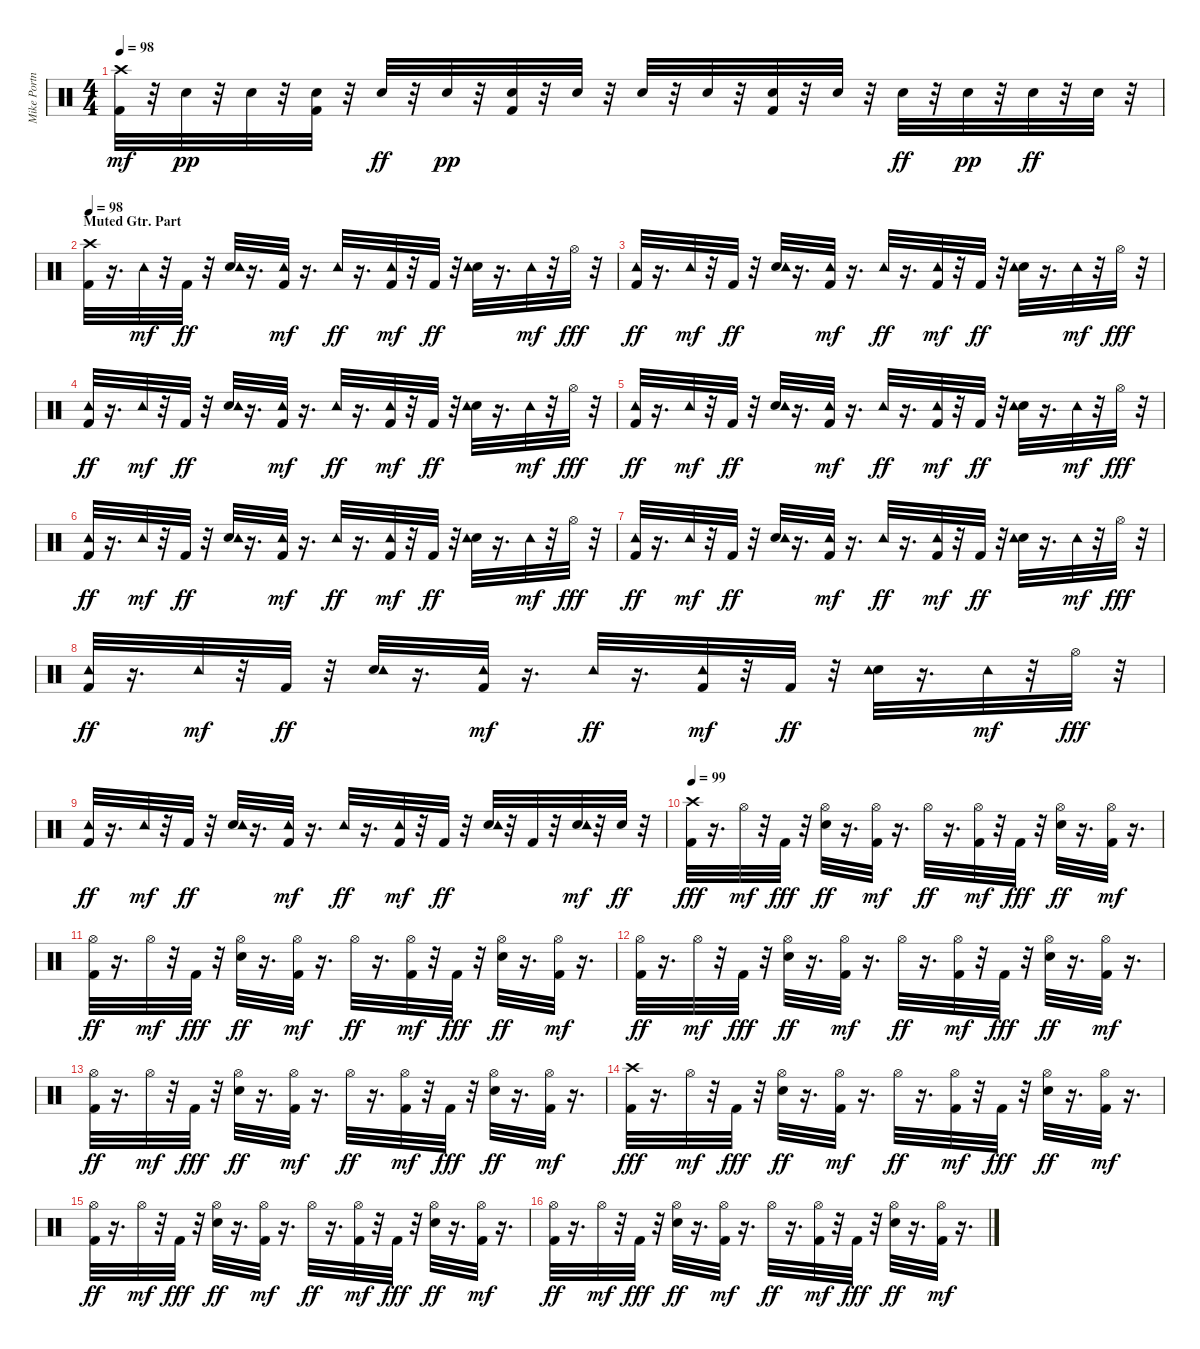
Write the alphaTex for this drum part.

\track ("Mike Portnoy" "Mike Portn") {instrument percussion}
\staff {score}
\articulation defaults
\ts (4 4)
\tempo 98
\clef neutral
\ks c
("Kick (hit) 2" "Crash high (hit)").32{dy mf} r.32 "Snare (hit) 2".32{dy pp} r.32 "Snare (hit) 2".32 r.32 ("Kick (hit) 2" "Snare (hit) 2").32 r.32 "Snare (hit) 2".32{dy ff} r.32 "Snare (hit) 2".32{dy pp} r.32 ("Kick (hit) 2" "Snare (hit) 2").32 r.32 "Snare (hit) 2".32 r.32 "Snare (hit) 2".32 r.32 "Snare (hit) 2".32 r.32 ("Kick (hit) 2" "Snare (hit) 2").32 r.32 "Snare (hit) 2".32 r.32 "Snare (hit) 2".32{dy ff} r.32 "Snare (hit) 2".32{dy pp} r.32 "Snare (hit) 2".32{dy ff} r.32 "Snare (hit) 2".32 r.32 |
\section ("" "Muted Gtr. Part")
\tempo 98
("Kick (hit) 2" "Crash high (hit)").32 r.16{d} "Tambourine (hit)".32{dy mf} r.32 "Kick (hit) 2".32{dy ff} r.32 ("Snare (hit) 2" "Tambourine (hit)").32 r.16{d} ("Kick (hit) 2" "Tambourine (hit)").32{dy mf} r.16{d} "Tambourine (hit)".32{dy ff} r.16{d} ("Kick (hit) 2" "Tambourine (hit)").32{dy mf} r.32 "Kick (hit) 2".32{dy ff} r.32 ("Snare (hit) 2" "Tambourine (hit)").32 r.16{d} "Tambourine (hit)".32{dy mf} r.32 "Hi-Hat (open)".32{dy fff} r.32 |
("Kick (hit) 2" "Tambourine (hit)").32{dy ff} r.16{d} "Tambourine (hit)".32{dy mf} r.32 "Kick (hit) 2".32{dy ff} r.32 ("Snare (hit) 2" "Tambourine (hit)").32 r.16{d} ("Kick (hit) 2" "Tambourine (hit)").32{dy mf} r.16{d} "Tambourine (hit)".32{dy ff} r.16{d} ("Kick (hit) 2" "Tambourine (hit)").32{dy mf} r.32 "Kick (hit) 2".32{dy ff} r.32 ("Snare (hit) 2" "Tambourine (hit)").32 r.16{d} "Tambourine (hit)".32{dy mf} r.32 "Hi-Hat (open)".32{dy fff} r.32 |
("Kick (hit) 2" "Tambourine (hit)").32{dy ff} r.16{d} "Tambourine (hit)".32{dy mf} r.32 "Kick (hit) 2".32{dy ff} r.32 ("Snare (hit) 2" "Tambourine (hit)").32 r.16{d} ("Kick (hit) 2" "Tambourine (hit)").32{dy mf} r.16{d} "Tambourine (hit)".32{dy ff} r.16{d} ("Kick (hit) 2" "Tambourine (hit)").32{dy mf} r.32 "Kick (hit) 2".32{dy ff} r.32 ("Snare (hit) 2" "Tambourine (hit)").32 r.16{d} "Tambourine (hit)".32{dy mf} r.32 "Hi-Hat (open)".32{dy fff} r.32 |
("Kick (hit) 2" "Tambourine (hit)").32{dy ff} r.16{d} "Tambourine (hit)".32{dy mf} r.32 "Kick (hit) 2".32{dy ff} r.32 ("Snare (hit) 2" "Tambourine (hit)").32 r.16{d} ("Kick (hit) 2" "Tambourine (hit)").32{dy mf} r.16{d} "Tambourine (hit)".32{dy ff} r.16{d} ("Kick (hit) 2" "Tambourine (hit)").32{dy mf} r.32 "Kick (hit) 2".32{dy ff} r.32 ("Snare (hit) 2" "Tambourine (hit)").32 r.16{d} "Tambourine (hit)".32{dy mf} r.32 "Hi-Hat (open)".32{dy fff} r.32 |
("Kick (hit) 2" "Tambourine (hit)").32{dy ff} r.16{d} "Tambourine (hit)".32{dy mf} r.32 "Kick (hit) 2".32{dy ff} r.32 ("Snare (hit) 2" "Tambourine (hit)").32 r.16{d} ("Kick (hit) 2" "Tambourine (hit)").32{dy mf} r.16{d} "Tambourine (hit)".32{dy ff} r.16{d} ("Kick (hit) 2" "Tambourine (hit)").32{dy mf} r.32 "Kick (hit) 2".32{dy ff} r.32 ("Snare (hit) 2" "Tambourine (hit)").32 r.16{d} "Tambourine (hit)".32{dy mf} r.32 "Hi-Hat (open)".32{dy fff} r.32 |
("Kick (hit) 2" "Tambourine (hit)").32{dy ff} r.16{d} "Tambourine (hit)".32{dy mf} r.32 "Kick (hit) 2".32{dy ff} r.32 ("Snare (hit) 2" "Tambourine (hit)").32 r.16{d} ("Kick (hit) 2" "Tambourine (hit)").32{dy mf} r.16{d} "Tambourine (hit)".32{dy ff} r.16{d} ("Kick (hit) 2" "Tambourine (hit)").32{dy mf} r.32 "Kick (hit) 2".32{dy ff} r.32 ("Snare (hit) 2" "Tambourine (hit)").32 r.16{d} "Tambourine (hit)".32{dy mf} r.32 "Hi-Hat (open)".32{dy fff} r.32 |
("Kick (hit) 2" "Tambourine (hit)").32{dy ff} r.16{d} "Tambourine (hit)".32{dy mf} r.32 "Kick (hit) 2".32{dy ff} r.32 ("Snare (hit) 2" "Tambourine (hit)").32 r.16{d} ("Kick (hit) 2" "Tambourine (hit)").32{dy mf} r.16{d} "Tambourine (hit)".32{dy ff} r.16{d} ("Kick (hit) 2" "Tambourine (hit)").32{dy mf} r.32 "Kick (hit) 2".32{dy ff} r.32 ("Snare (hit) 2" "Tambourine (hit)").32 r.16{d} "Tambourine (hit)".32{dy mf} r.32 "Hi-Hat (open)".32{dy fff} r.32 |
("Kick (hit) 2" "Tambourine (hit)").32{dy ff} r.16{d} "Tambourine (hit)".32{dy mf} r.32 "Kick (hit) 2".32{dy ff} r.32 ("Snare (hit) 2" "Tambourine (hit)").32 r.16{d} ("Kick (hit) 2" "Tambourine (hit)").32{dy mf} r.16{d} "Tambourine (hit)".32{dy ff} r.16{d} ("Kick (hit) 2" "Tambourine (hit)").32{dy mf} r.32 "Kick (hit) 2".32{dy ff} r.32 ("Snare (hit) 2" "Tambourine (hit)").32 r.32 "Kick (hit) 2".32 r.32 ("Snare (hit) 2" "Tambourine (hit)").32{dy mf} r.32 "Snare (hit) 2".32{dy ff} r.32 |
\tempo 99
("Kick (hit) 2" "Crash high (hit)").32{dy fff} r.16{d} "Hi-Hat (open)".32{dy mf} r.32 "Kick (hit) 2".32{dy fff} r.32 ("Snare (hit) 2" "Hi-Hat (open)").32{dy ff} r.16{d} ("Kick (hit) 2" "Hi-Hat (open)").32{dy mf} r.16{d} "Hi-Hat (open)".32{dy ff} r.16{d} ("Kick (hit) 2" "Hi-Hat (open)").32{dy mf} r.32 "Kick (hit) 2".32{dy fff} r.32 ("Snare (hit) 2" "Hi-Hat (open)").32{dy ff} r.16{d} ("Kick (hit) 2" "Hi-Hat (open)").32{dy mf} r.16{d} |
("Kick (hit) 2" "Hi-Hat (open)").32{dy ff} r.16{d} "Hi-Hat (open)".32{dy mf} r.32 "Kick (hit) 2".32{dy fff} r.32 ("Snare (hit) 2" "Hi-Hat (open)").32{dy ff} r.16{d} ("Kick (hit) 2" "Hi-Hat (open)").32{dy mf} r.16{d} "Hi-Hat (open)".32{dy ff} r.16{d} ("Kick (hit) 2" "Hi-Hat (open)").32{dy mf} r.32 "Kick (hit) 2".32{dy fff} r.32 ("Snare (hit) 2" "Hi-Hat (open)").32{dy ff} r.16{d} ("Kick (hit) 2" "Hi-Hat (open)").32{dy mf} r.16{d} |
("Kick (hit) 2" "Hi-Hat (open)").32{dy ff} r.16{d} "Hi-Hat (open)".32{dy mf} r.32 "Kick (hit) 2".32{dy fff} r.32 ("Snare (hit) 2" "Hi-Hat (open)").32{dy ff} r.16{d} ("Kick (hit) 2" "Hi-Hat (open)").32{dy mf} r.16{d} "Hi-Hat (open)".32{dy ff} r.16{d} ("Kick (hit) 2" "Hi-Hat (open)").32{dy mf} r.32 "Kick (hit) 2".32{dy fff} r.32 ("Snare (hit) 2" "Hi-Hat (open)").32{dy ff} r.16{d} ("Kick (hit) 2" "Hi-Hat (open)").32{dy mf} r.16{d} |
("Kick (hit) 2" "Hi-Hat (open)").32{dy ff} r.16{d} "Hi-Hat (open)".32{dy mf} r.32 "Kick (hit) 2".32{dy fff} r.32 ("Snare (hit) 2" "Hi-Hat (open)").32{dy ff} r.16{d} ("Kick (hit) 2" "Hi-Hat (open)").32{dy mf} r.16{d} "Hi-Hat (open)".32{dy ff} r.16{d} ("Kick (hit) 2" "Hi-Hat (open)").32{dy mf} r.32 "Kick (hit) 2".32{dy fff} r.32 ("Snare (hit) 2" "Hi-Hat (open)").32{dy ff} r.16{d} ("Kick (hit) 2" "Hi-Hat (open)").32{dy mf} r.16{d} |
("Kick (hit) 2" "Crash high (hit)").32{dy fff} r.16{d} "Hi-Hat (open)".32{dy mf} r.32 "Kick (hit) 2".32{dy fff} r.32 ("Snare (hit) 2" "Hi-Hat (open)").32{dy ff} r.16{d} ("Kick (hit) 2" "Hi-Hat (open)").32{dy mf} r.16{d} "Hi-Hat (open)".32{dy ff} r.16{d} ("Kick (hit) 2" "Hi-Hat (open)").32{dy mf} r.32 "Kick (hit) 2".32{dy fff} r.32 ("Snare (hit) 2" "Hi-Hat (open)").32{dy ff} r.16{d} ("Kick (hit) 2" "Hi-Hat (open)").32{dy mf} r.16{d} |
("Kick (hit) 2" "Hi-Hat (open)").32{dy ff} r.16{d} "Hi-Hat (open)".32{dy mf} r.32 "Kick (hit) 2".32{dy fff} r.32 ("Snare (hit) 2" "Hi-Hat (open)").32{dy ff} r.16{d} ("Kick (hit) 2" "Hi-Hat (open)").32{dy mf} r.16{d} "Hi-Hat (open)".32{dy ff} r.16{d} ("Kick (hit) 2" "Hi-Hat (open)").32{dy mf} r.32 "Kick (hit) 2".32{dy fff} r.32 ("Snare (hit) 2" "Hi-Hat (open)").32{dy ff} r.16{d} ("Kick (hit) 2" "Hi-Hat (open)").32{dy mf} r.16{d} |
("Kick (hit) 2" "Hi-Hat (open)").32{dy ff} r.16{d} "Hi-Hat (open)".32{dy mf} r.32 "Kick (hit) 2".32{dy fff} r.32 ("Snare (hit) 2" "Hi-Hat (open)").32{dy ff} r.16{d} ("Kick (hit) 2" "Hi-Hat (open)").32{dy mf} r.16{d} "Hi-Hat (open)".32{dy ff} r.16{d} ("Kick (hit) 2" "Hi-Hat (open)").32{dy mf} r.32 "Kick (hit) 2".32{dy fff} r.32 ("Snare (hit) 2" "Hi-Hat (open)").32{dy ff} r.16{d} ("Kick (hit) 2" "Hi-Hat (open)").32{dy mf} r.16{d}
